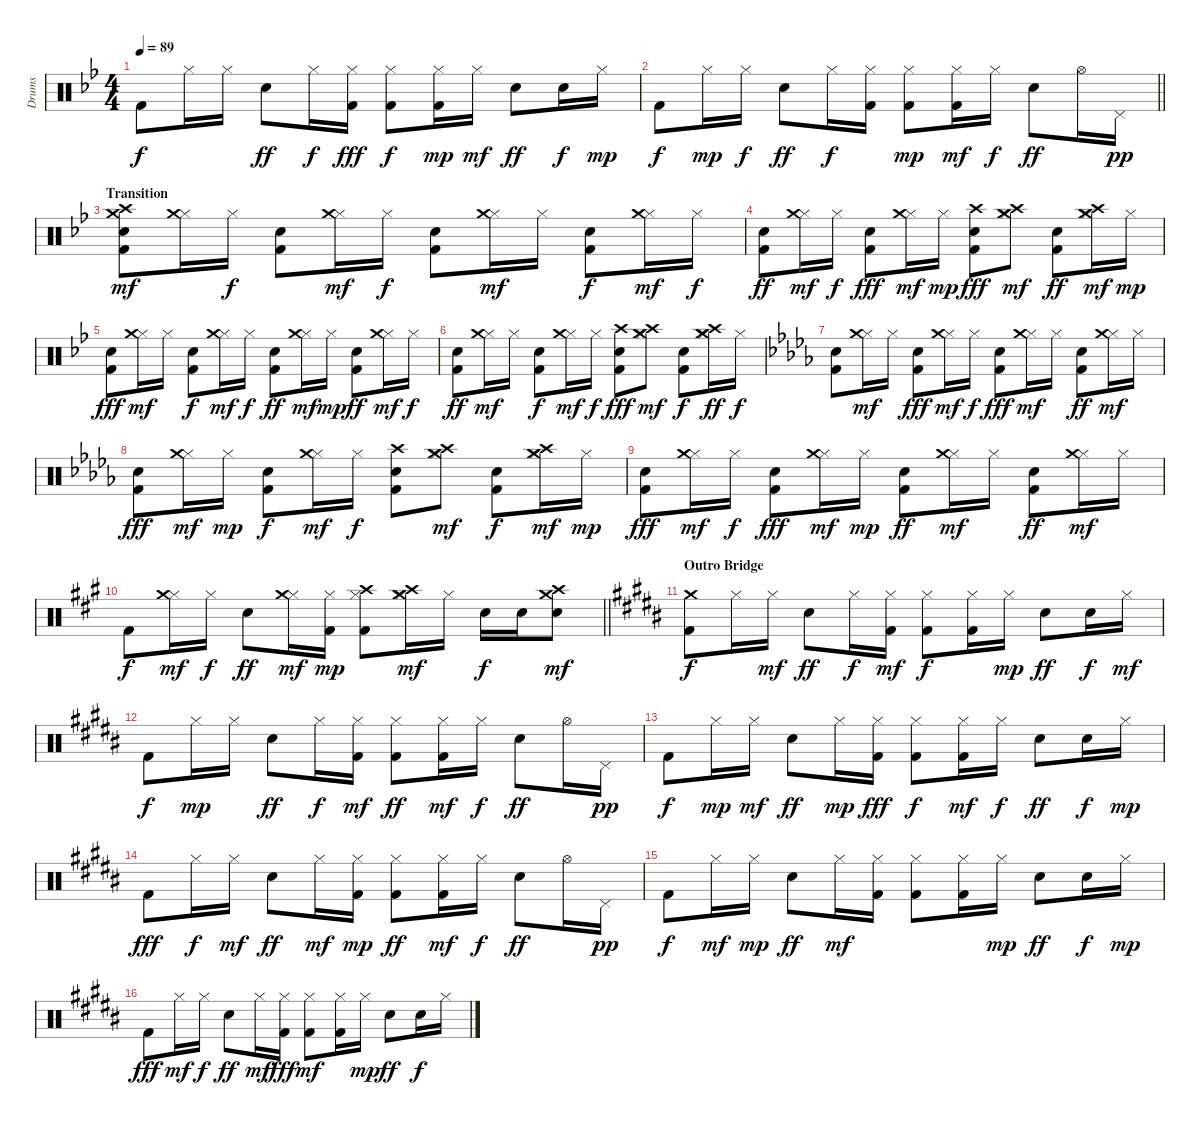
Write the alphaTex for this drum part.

\track ("Drums" "Drums") {instrument percussion}
\staff {score}
\articulation defaults
\ts (4 4)
\tempo 89
\clef neutral
\ks bb "Kick (hit) 2".8{dy f} "Hi-Hat (closed)".16 "Hi-Hat (closed)".16 "Electric Snare (hit)".8{dy ff} "Hi-Hat (closed)".16{dy f}
("Kick (hit) 2" "Hi-Hat (closed)").16{dy fff} ("Kick (hit) 2" "Hi-Hat (closed)").8{dy f} ("Kick (hit) 2" "Hi-Hat (closed)").16{dy mp} "Hi-Hat (closed)".16{dy mf} "Electric Snare (hit)".8{dy ff} "Hand Clap (hit)".16{dy f} "Hi-Hat (closed)".16{dy mp} |
\barLineRight lightlight "Kick (hit) 2".8{dy f} "Hi-Hat (closed)".16{dy mp} "Hi-Hat (closed)".16{dy f} "Electric Snare (hit)".8{dy ff} "Hi-Hat (closed)".16{dy f}
("Kick (hit) 2" "Hi-Hat (closed)").16 ("Kick (hit) 2" "Hi-Hat (closed)").8{dy mp} ("Kick (hit) 2" "Hi-Hat (closed)").16{dy mf} "Hi-Hat (closed)".16{dy f} "Electric Snare (hit)".8{dy ff} "Hi-Hat (open)".16 "Pedal Hi-Hat (hit)".16{dy pp} |
\section ("" "Transition")
("Kick (hit) 2" "Electric Snare (hit)" "Crash high (hit)" "Crash medium (hit)").8{dy mf} ("Hi-Hat (closed)" "Crash medium (hit)").16 "Hi-Hat (closed)".16{dy f} ("Kick (hit) 2" "Electric Snare (hit)").8 ("Hi-Hat (closed)" "Crash medium (hit)").16{dy mf} "Hi-Hat (closed)".16{dy f} ("Kick (hit) 2" "Electric Snare (hit)").8 ("Hi-Hat (closed)" "Crash medium (hit)").16{dy mf} "Hi-Hat (closed)".16 ("Kick (hit) 2" "Electric Snare (hit)").8{dy f} ("Hi-Hat (closed)" "Crash medium (hit)").16{dy mf} "Hi-Hat (closed)".16{dy f} |
("Kick (hit) 2" "Electric Snare (hit)").8{dy ff} ("Hi-Hat (closed)" "Crash medium (hit)").16{dy mf} "Hi-Hat (closed)".16{dy f} ("Kick (hit) 2" "Electric Snare (hit)").8{dy fff} ("Hi-Hat (closed)" "Crash medium (hit)").16{dy mf} "Hi-Hat (closed)".16{dy mp} ("Kick (hit) 2" "Electric Snare (hit)" "Crash high (hit)").8{dy fff} ("Hi-Hat (closed)" "Crash high (hit)" "Crash medium (hit)").8{dy mf} ("Kick (hit) 2" "Electric Snare (hit)").8{dy ff} ("Hi-Hat (closed)" "Crash high (hit)" "Crash medium (hit)").16{dy mf} "Hi-Hat (closed)".16{dy mp} |
("Kick (hit) 2" "Electric Snare (hit)").8{dy fff} ("Hi-Hat (closed)" "Crash medium (hit)").16{dy mf} "Hi-Hat (closed)".16 ("Kick (hit) 2" "Electric Snare (hit)").8{dy f} ("Hi-Hat (closed)" "Crash medium (hit)").16{dy mf} "Hi-Hat (closed)".16{dy f} ("Kick (hit) 2" "Electric Snare (hit)").8{dy ff} ("Hi-Hat (closed)" "Crash medium (hit)").16{dy mf} "Hi-Hat (closed)".16{dy mp} ("Kick (hit) 2" "Electric Snare (hit)").8{dy ff} ("Hi-Hat (closed)" "Crash medium (hit)").16{dy mf} "Hi-Hat (closed)".16{dy f} |
("Kick (hit) 2" "Electric Snare (hit)").8{dy ff} ("Hi-Hat (closed)" "Crash medium (hit)").16{dy mf} "Hi-Hat (closed)".16 ("Kick (hit) 2" "Electric Snare (hit)").8{dy f} ("Hi-Hat (closed)" "Crash medium (hit)").16{dy mf} "Hi-Hat (closed)".16{dy f} ("Kick (hit) 2" "Electric Snare (hit)" "Crash high (hit)").8{dy fff} ("Hi-Hat (closed)" "Crash high (hit)" "Crash medium (hit)").8{dy mf} ("Kick (hit) 2" "Electric Snare (hit)").8{dy f} ("Hi-Hat (closed)" "Crash high (hit)" "Crash medium (hit)").16{dy ff} "Hi-Hat (closed)".16{dy f} |
\ks db
("Kick (hit) 2" "Electric Snare (hit)").8 ("Hi-Hat (closed)" "Crash medium (hit)").16{dy mf} "Hi-Hat (closed)".16 ("Kick (hit) 2" "Electric Snare (hit)").8{dy fff} ("Hi-Hat (closed)" "Crash medium (hit)").16{dy mf} "Hi-Hat (closed)".16{dy f} ("Kick (hit) 2" "Electric Snare (hit)").8{dy fff} ("Hi-Hat (closed)" "Crash medium (hit)").16{dy mf} "Hi-Hat (closed)".16 ("Kick (hit) 2" "Electric Snare (hit)").8{dy ff} ("Hi-Hat (closed)" "Crash medium (hit)").16{dy mf} "Hi-Hat (closed)".16 |
("Kick (hit) 2" "Electric Snare (hit)").8{dy fff} ("Hi-Hat (closed)" "Crash medium (hit)").16{dy mf} "Hi-Hat (closed)".16{dy mp} ("Kick (hit) 2" "Electric Snare (hit)").8{dy f} ("Hi-Hat (closed)" "Crash medium (hit)").16{dy mf} "Hi-Hat (closed)".16{dy f} ("Kick (hit) 2" "Electric Snare (hit)" "Crash high (hit)").8 ("Hi-Hat (closed)" "Crash high (hit)" "Crash medium (hit)").8{dy mf} ("Kick (hit) 2" "Electric Snare (hit)").8{dy f} ("Hi-Hat (closed)" "Crash high (hit)" "Crash medium (hit)").16{dy mf} "Hi-Hat (closed)".16{dy mp} |
("Kick (hit) 2" "Electric Snare (hit)").8{dy fff} ("Hi-Hat (closed)" "Crash medium (hit)").16{dy mf} "Hi-Hat (closed)".16{dy f} ("Kick (hit) 2" "Electric Snare (hit)").8{dy fff} ("Hi-Hat (closed)" "Crash medium (hit)").16{dy mf} "Hi-Hat (closed)".16{dy mp} ("Kick (hit) 2" "Electric Snare (hit)").8{dy ff} ("Hi-Hat (closed)" "Crash medium (hit)").16{dy mf} "Hi-Hat (closed)".16 ("Kick (hit) 2" "Electric Snare (hit)").8{dy ff} ("Hi-Hat (closed)" "Crash medium (hit)").16{dy mf} "Hi-Hat (closed)".16 |
\barLineRight lightlight
\ks a "Kick (hit) 2".8{dy f}
("Hi-Hat (closed)" "Crash medium (hit)").16{dy mf} "Hi-Hat (closed)".16{dy f} "Electric Snare (hit)".8{dy ff} ("Hi-Hat (closed)" "Crash medium (hit)").16{dy mf} ("Kick (hit) 2" "Hi-Hat (closed)").16{dy mp} ("Kick (hit) 2" "Hi-Hat (closed)" "Crash high (hit)").8 ("Hi-Hat (closed)" "Crash high (hit)" "Crash medium (hit)").16{dy mf} "Hi-Hat (closed)".16 "Electric Snare (hit)".16{dy f} "Electric Snare (hit)".16 ("Electric Snare (hit)" "Crash high (hit)" "Crash medium (hit)").8{dy mf} |
\section ("" "Outro Bridge")
\ks b
("Kick (hit) 2" "Crash medium (hit)").8{dy f} "Hi-Hat (closed)".16 "Hi-Hat (closed)".16{dy mf} "Electric Snare (hit)".8{dy ff} "Hi-Hat (closed)".16{dy f} ("Kick (hit) 2" "Hi-Hat (closed)").16{dy mf} ("Kick (hit) 2" "Hi-Hat (closed)").8{dy f} ("Kick (hit) 2" "Hi-Hat (closed)").16 "Hi-Hat (closed)".16{dy mp} "Electric Snare (hit)".8{dy ff} "Hand Clap (hit)".16{dy f} "Hi-Hat (closed)".16{dy mf} |
"Kick (hit) 2".8{dy f} "Hi-Hat (closed)".16{dy mp} "Hi-Hat (closed)".16 "Electric Snare (hit)".8{dy ff} "Hi-Hat (closed)".16{dy f} ("Kick (hit) 2" "Hi-Hat (closed)").16{dy mf} ("Kick (hit) 2" "Hi-Hat (closed)").8{dy ff} ("Kick (hit) 2" "Hi-Hat (closed)").16{dy mf} "Hi-Hat (closed)".16{dy f} "Electric Snare (hit)".8{dy ff} "Hi-Hat (open)".16 "Pedal Hi-Hat (hit)".16{dy pp} |
"Kick (hit) 2".8{dy f} "Hi-Hat (closed)".16{dy mp} "Hi-Hat (closed)".16{dy mf} "Electric Snare (hit)".8{dy ff} "Hi-Hat (closed)".16{dy mp} ("Kick (hit) 2" "Hi-Hat (closed)").16{dy fff} ("Kick (hit) 2" "Hi-Hat (closed)").8{dy f} ("Kick (hit) 2" "Hi-Hat (closed)").16{dy mf} "Hi-Hat (closed)".16{dy f} "Electric Snare (hit)".8{dy ff} "Hand Clap (hit)".16{dy f} "Hi-Hat (closed)".16{dy mp} |
"Kick (hit) 2".8{dy fff} "Hi-Hat (closed)".16{dy f} "Hi-Hat (closed)".16{dy mf} "Electric Snare (hit)".8{dy ff} "Hi-Hat (closed)".16{dy mf} ("Kick (hit) 2" "Hi-Hat (closed)").16{dy mp} ("Kick (hit) 2" "Hi-Hat (closed)").8{dy ff} ("Kick (hit) 2" "Hi-Hat (closed)").16{dy mf} "Hi-Hat (closed)".16{dy f} "Electric Snare (hit)".8{dy ff} "Hi-Hat (open)".16 "Pedal Hi-Hat (hit)".16{dy pp} |
"Kick (hit) 2".8{dy f} "Hi-Hat (closed)".16{dy mf} "Hi-Hat (closed)".16{dy mp} "Electric Snare (hit)".8{dy ff} "Hi-Hat (closed)".16{dy mf} ("Kick (hit) 2" "Hi-Hat (closed)").16 ("Kick (hit) 2" "Hi-Hat (closed)").8 ("Kick (hit) 2" "Hi-Hat (closed)").16 "Hi-Hat (closed)".16{dy mp} "Electric Snare (hit)".8{dy ff} "Hand Clap (hit)".16{dy f} "Hi-Hat (closed)".16{dy mp} |
"Kick (hit) 2".8{dy fff} "Hi-Hat (closed)".16{dy mf} "Hi-Hat (closed)".16{dy f} "Electric Snare (hit)".8{dy ff} "Hi-Hat (closed)".16{dy mf} ("Kick (hit) 2" "Hi-Hat (closed)").16{dy fff} ("Kick (hit) 2" "Hi-Hat (closed)").8{dy mf} ("Kick (hit) 2" "Hi-Hat (closed)").16 "Hi-Hat (closed)".16{dy mp} "Electric Snare (hit)".8{dy ff} "Hand Clap (hit)".16{dy f} "Hi-Hat (closed)".16
